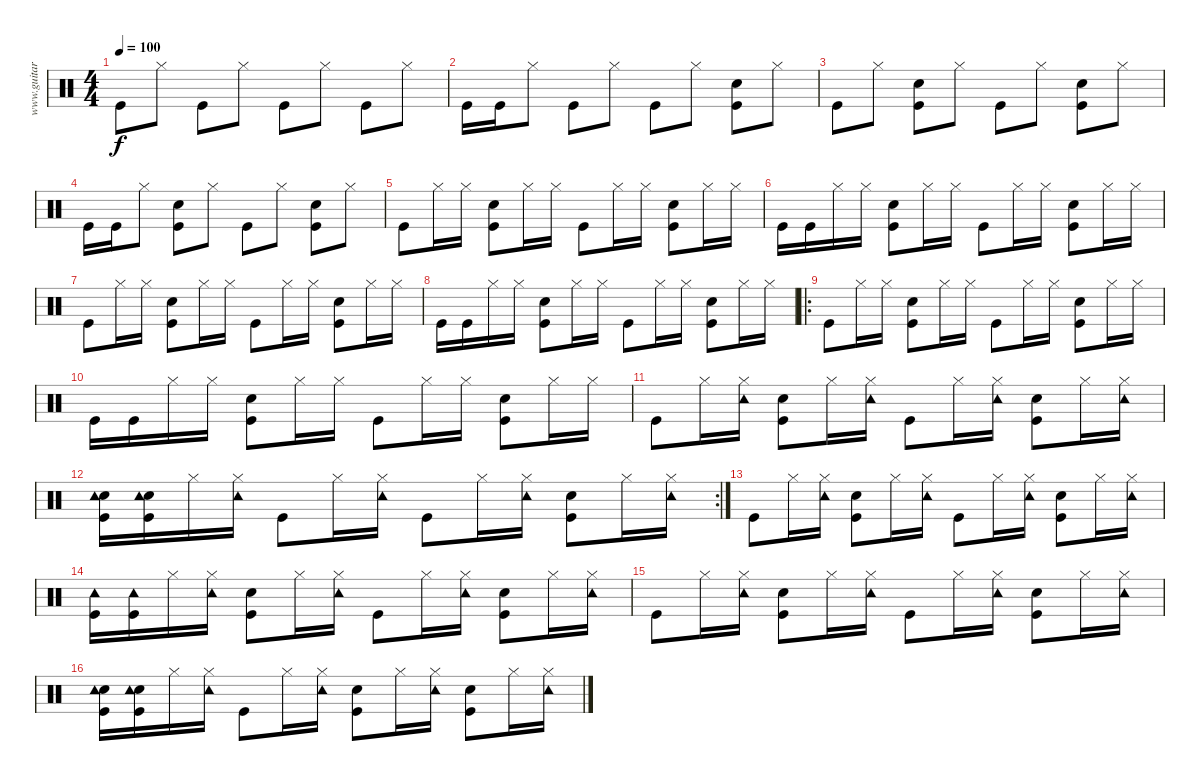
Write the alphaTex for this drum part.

\track ("www.guitarpro1.narod.ru" "www.guitar") {instrument percussion}
\staff {score}
\articulation defaults
\ts (4 4)
\tempo 100
\clef neutral
\ks c "Kick (hit)".8{dy f} "Hi-Hat (closed)".8 "Kick (hit)".8 "Hi-Hat (closed)".8 "Kick (hit)".8 "Hi-Hat (closed)".8 "Kick (hit)".8 "Hi-Hat (closed)".8
|
"Kick (hit)".16 "Kick (hit)".16 "Hi-Hat (closed)".8 "Kick (hit)".8 "Hi-Hat (closed)".8 "Kick (hit)".8 "Hi-Hat (closed)".8 ("Kick (hit)" "Hand Clap (hit)").8 "Hi-Hat (closed)".8 |
"Kick (hit)".8 "Hi-Hat (closed)".8 ("Kick (hit)" "Hand Clap (hit)").8 "Hi-Hat (closed)".8 "Kick (hit)".8 "Hi-Hat (closed)".8 ("Kick (hit)" "Hand Clap (hit)").8 "Hi-Hat (closed)".8 |
"Kick (hit)".16 "Kick (hit)".16 "Hi-Hat (closed)".8 ("Kick (hit)" "Hand Clap (hit)").8 "Hi-Hat (closed)".8 "Kick (hit)".8 "Hi-Hat (closed)".8 ("Kick (hit)" "Hand Clap (hit)").8 "Hi-Hat (closed)".8 |
"Kick (hit)".8 "Hi-Hat (closed)".16 "Hi-Hat (closed)".16 ("Kick (hit)" "Hand Clap (hit)").8 "Hi-Hat (closed)".16 "Hi-Hat (closed)".16 "Kick (hit)".8 "Hi-Hat (closed)".16 "Hi-Hat (closed)".16 ("Kick (hit)" "Hand Clap (hit)").8 "Hi-Hat (closed)".16 "Hi-Hat (closed)".16 |
"Kick (hit)".16 "Kick (hit)".16 "Hi-Hat (closed)".16 "Hi-Hat (closed)".16 ("Kick (hit)" "Hand Clap (hit)").8 "Hi-Hat (closed)".16 "Hi-Hat (closed)".16 "Kick (hit)".8 "Hi-Hat (closed)".16 "Hi-Hat (closed)".16 ("Kick (hit)" "Hand Clap (hit)").8 "Hi-Hat (closed)".16 "Hi-Hat (closed)".16 |
"Kick (hit)".8 "Hi-Hat (closed)".16 "Hi-Hat (closed)".16 ("Kick (hit)" "Hand Clap (hit)").8 "Hi-Hat (closed)".16 "Hi-Hat (closed)".16 "Kick (hit)".8 "Hi-Hat (closed)".16 "Hi-Hat (closed)".16 ("Kick (hit)" "Hand Clap (hit)").8 "Hi-Hat (closed)".16 "Hi-Hat (closed)".16 |
"Kick (hit)".16 "Kick (hit)".16 "Hi-Hat (closed)".16 "Hi-Hat (closed)".16 ("Kick (hit)" "Hand Clap (hit)").8 "Hi-Hat (closed)".16 "Hi-Hat (closed)".16 "Kick (hit)".8 "Hi-Hat (closed)".16 "Hi-Hat (closed)".16 ("Kick (hit)" "Hand Clap (hit)").8 "Hi-Hat (closed)".16 "Hi-Hat (closed)".16 |
\ro "Kick (hit)".8 "Hi-Hat (closed)".16 "Hi-Hat (closed)".16
("Kick (hit)" "Hand Clap (hit)").8 "Hi-Hat (closed)".16 "Hi-Hat (closed)".16 "Kick (hit)".8 "Hi-Hat (closed)".16 "Hi-Hat (closed)".16 ("Kick (hit)" "Hand Clap (hit)").8 "Hi-Hat (closed)".16 "Hi-Hat (closed)".16 |
"Kick (hit)".16 "Kick (hit)".16 "Hi-Hat (closed)".16 "Hi-Hat (closed)".16 ("Kick (hit)" "Hand Clap (hit)").8 "Hi-Hat (closed)".16 "Hi-Hat (closed)".16 "Kick (hit)".8 "Hi-Hat (closed)".16 "Hi-Hat (closed)".16 ("Kick (hit)" "Hand Clap (hit)").8 "Hi-Hat (closed)".16 "Hi-Hat (closed)".16 |
"Kick (hit)".8 "Hi-Hat (closed)".16 ("Tambourine (hit)" "Hi-Hat (closed)").16 ("Kick (hit)" "Hand Clap (hit)").8 "Hi-Hat (closed)".16 ("Tambourine (hit)" "Hi-Hat (closed)").16 "Kick (hit)".8 "Hi-Hat (closed)".16 ("Tambourine (hit)" "Hi-Hat (closed)").16 ("Kick (hit)" "Hand Clap (hit)").8 "Hi-Hat (closed)".16 ("Tambourine (hit)" "Hi-Hat (closed)").16 |
\rc 2
("Kick (hit)" "Hand Clap (hit)" "Tambourine (hit)").16 ("Kick (hit)" "Hand Clap (hit)" "Tambourine (hit)").16 "Hi-Hat (closed)".16 ("Tambourine (hit)" "Hi-Hat (closed)").16 "Kick (hit)".8 "Hi-Hat (closed)".16 ("Tambourine (hit)" "Hi-Hat (closed)").16 "Kick (hit)".8 "Hi-Hat (closed)".16 ("Tambourine (hit)" "Hi-Hat (closed)").16 ("Kick (hit)" "Hand Clap (hit)").8 "Hi-Hat (closed)".16 ("Tambourine (hit)" "Hi-Hat (closed)").16 |
"Kick (hit)".8 "Hi-Hat (closed)".16 ("Tambourine (hit)" "Hi-Hat (closed)").16 ("Kick (hit)" "Hand Clap (hit)").8 "Hi-Hat (closed)".16 ("Tambourine (hit)" "Hi-Hat (closed)").16 "Kick (hit)".8 "Hi-Hat (closed)".16 ("Tambourine (hit)" "Hi-Hat (closed)").16 ("Kick (hit)" "Hand Clap (hit)").8 "Hi-Hat (closed)".16 ("Tambourine (hit)" "Hi-Hat (closed)").16 |
("Kick (hit)" "Tambourine (hit)").16 ("Kick (hit)" "Tambourine (hit)").16 "Hi-Hat (closed)".16 ("Tambourine (hit)" "Hi-Hat (closed)").16 ("Kick (hit)" "Hand Clap (hit)").8 "Hi-Hat (closed)".16 ("Tambourine (hit)" "Hi-Hat (closed)").16 "Kick (hit)".8 "Hi-Hat (closed)".16 ("Tambourine (hit)" "Hi-Hat (closed)").16 ("Kick (hit)" "Hand Clap (hit)").8 "Hi-Hat (closed)".16 ("Tambourine (hit)" "Hi-Hat (closed)").16 |
"Kick (hit)".8 "Hi-Hat (closed)".16 ("Tambourine (hit)" "Hi-Hat (closed)").16 ("Kick (hit)" "Hand Clap (hit)").8 "Hi-Hat (closed)".16 ("Tambourine (hit)" "Hi-Hat (closed)").16 "Kick (hit)".8 "Hi-Hat (closed)".16 ("Tambourine (hit)" "Hi-Hat (closed)").16 ("Kick (hit)" "Hand Clap (hit)").8 "Hi-Hat (closed)".16 ("Tambourine (hit)" "Hi-Hat (closed)").16 |
("Kick (hit)" "Hand Clap (hit)" "Tambourine (hit)").16 ("Kick (hit)" "Hand Clap (hit)" "Tambourine (hit)").16 "Hi-Hat (closed)".16 ("Tambourine (hit)" "Hi-Hat (closed)").16 "Kick (hit)".8 "Hi-Hat (closed)".16 ("Tambourine (hit)" "Hi-Hat (closed)").16 ("Kick (hit)" "Snare (hit) 2").8 "Hi-Hat (closed)".16 ("Tambourine (hit)" "Hi-Hat (closed)").16 ("Kick (hit)" "Hand Clap (hit)").8 "Hi-Hat (closed)".16 ("Tambourine (hit)" "Hi-Hat (closed)").16
